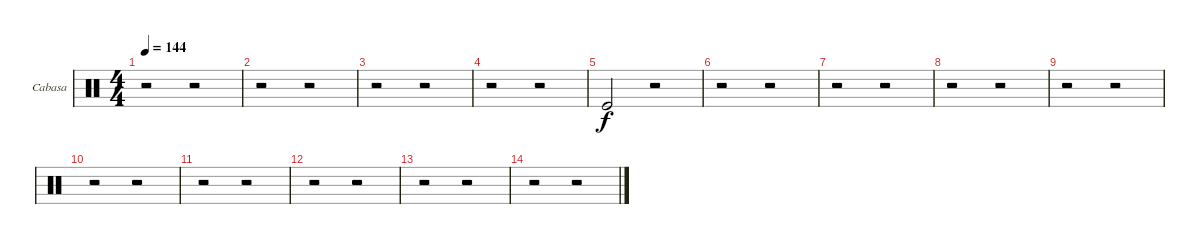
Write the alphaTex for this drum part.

\bracketExtendMode groupsimilarinstruments
\firstSystemTrackNameOrientation horizontal
\otherSystemsTrackNameOrientation horizontal
\track ("Cabasa" "Cabasa") {instrument percussion}
\staff {score}
\articulation defaults
\ts (4 4)
\tempo 144
\clef neutral
\ks c
r.2{dy f} r.2 |
r.2 r.2 |
r.2 r.2 |
r.2 r.2 |
"Kick (hit)".2 r.2 |
r.2 r.2 |
r.2 r.2 |
r.2 r.2 |
r.2 r.2 |
r.2 r.2 |
r.2 r.2 |
r.2 r.2 |
r.2 r.2 |
r.2 r.2
